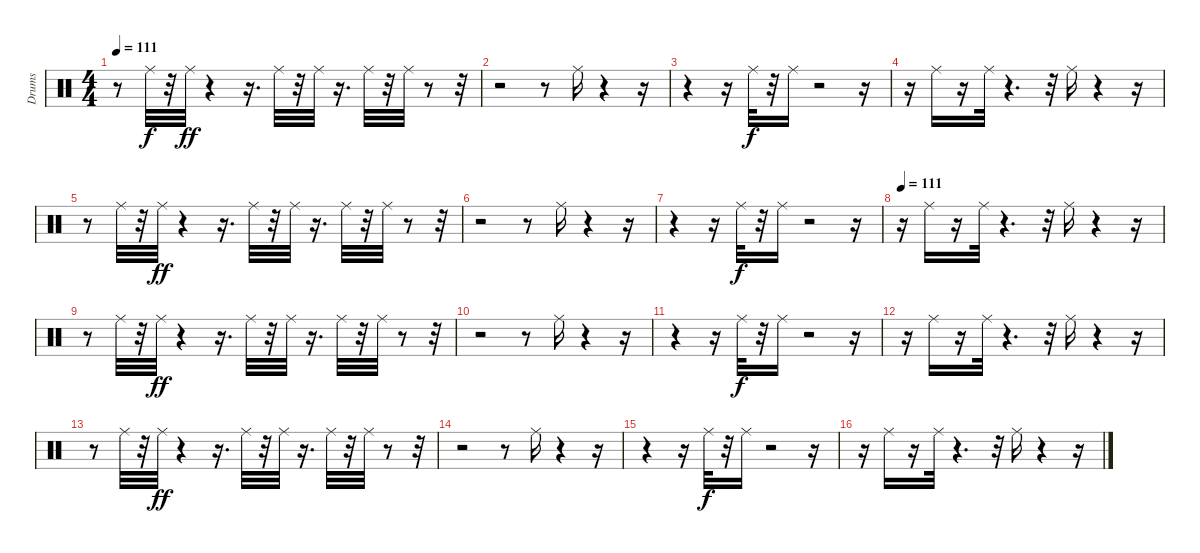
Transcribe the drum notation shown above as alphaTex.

\track ("Drums" "Drums") {instrument percussion}
\staff {score}
\articulation defaults
\ts (4 4)
\tempo 111
\clef neutral
\ks c
r.8{dy f} "Ride (middle)".32 r.32 "Ride (middle)".32{dy ff} r.4 r.16{d} "Ride (middle)".32 r.32 "Ride (middle)".32 r.16{d} "Ride (middle)".32 r.32 "Ride (middle)".32 r.8 r.32 |
r.2 r.8 "Ride (middle)".16 r.4 r.16 |
r.4 r.16 "Ride (middle)".32{dy f} r.32 "Ride (middle)".16 r.2 r.16 |
r.16 "Ride (middle)".16 r.16 "Ride (middle)".32 r.4{d} r.32 "Ride (middle)".16 r.4 r.16 |
r.8 "Ride (middle)".32 r.32 "Ride (middle)".32{dy ff} r.4 r.16{d} "Ride (middle)".32 r.32 "Ride (middle)".32 r.16{d} "Ride (middle)".32 r.32 "Ride (middle)".32 r.8 r.32 |
r.2 r.8 "Ride (middle)".16 r.4 r.16 |
r.4 r.16 "Ride (middle)".32{dy f} r.32 "Ride (middle)".16 r.2 r.16 |
\tempo 111
r.16 "Ride (middle)".16 r.16 "Ride (middle)".32 r.4{d} r.32 "Ride (middle)".16 r.4 r.16 |
r.8 "Ride (middle)".32 r.32 "Ride (middle)".32{dy ff} r.4 r.16{d} "Ride (middle)".32 r.32 "Ride (middle)".32 r.16{d} "Ride (middle)".32 r.32 "Ride (middle)".32 r.8 r.32 |
r.2 r.8 "Ride (middle)".16 r.4 r.16 |
r.4 r.16 "Ride (middle)".32{dy f} r.32 "Ride (middle)".16 r.2 r.16 |
r.16 "Ride (middle)".16 r.16 "Ride (middle)".32 r.4{d} r.32 "Ride (middle)".16 r.4 r.16 |
r.8 "Ride (middle)".32 r.32 "Ride (middle)".32{dy ff} r.4 r.16{d} "Ride (middle)".32 r.32 "Ride (middle)".32 r.16{d} "Ride (middle)".32 r.32 "Ride (middle)".32 r.8 r.32 |
r.2 r.8 "Ride (middle)".16 r.4 r.16 |
r.4 r.16 "Ride (middle)".32{dy f} r.32 "Ride (middle)".16 r.2 r.16 |
r.16 "Ride (middle)".16 r.16 "Ride (middle)".32 r.4{d} r.32 "Ride (middle)".16 r.4 r.16
